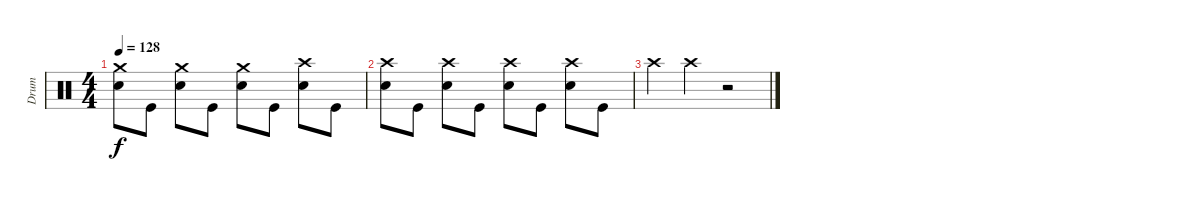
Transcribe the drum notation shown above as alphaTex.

\track ("Drum" "Drum") {instrument percussion}
\staff {score}
\articulation defaults
\ts (4 4)
\tempo 128
\clef neutral
\ks c
("Crash medium (hit)" "Snare (hit) 2").8{dy f} "Kick (hit)".8 ("Crash medium (hit)" "Snare (hit) 2").8 "Kick (hit)".8 ("Crash medium (hit)" "Snare (hit) 2").8 "Kick (hit)".8 ("Crash high (hit)" "Snare (hit) 2").8 "Kick (hit)".8 |
("Crash high (hit)" "Snare (hit) 2").8 "Kick (hit)".8 ("Crash high (hit)" "Snare (hit) 2").8 "Kick (hit)".8 ("Crash high (hit)" "Snare (hit) 2").8 "Kick (hit)".8 ("Crash high (hit)" "Snare (hit) 2").8 "Kick (hit)".8 |
"Crash high (hit)".4 "Crash high (hit)".4 r.2
